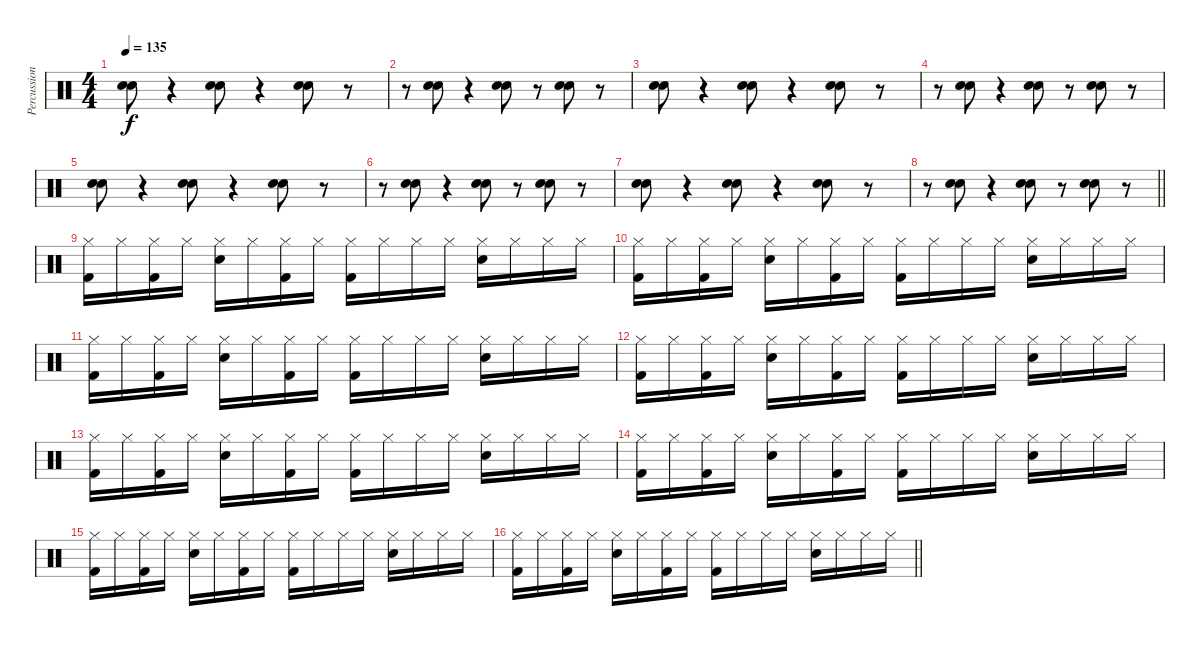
\track ("Percussion" "Percussion") {instrument percussion}
\staff {score}
\articulation defaults
\ts (4 4)
\section ("" "")
\tempo 135
\clef neutral
\ks c
("Electric Snare (hit)" "Snare (hit) 2").8{bd 480 dy f} r.4 ("Snare (hit) 2" "Electric Snare (hit)").8{bd 480} r.4 ("Snare (hit) 2" "Electric Snare (hit)").8{bd 480} r.8 |
r.8 ("Snare (hit) 2" "Electric Snare (hit)").8{bd 480} r.4 ("Snare (hit) 2" "Electric Snare (hit)").8{bd 60} r.8 ("Snare (hit) 2" "Electric Snare (hit)").8{bd 60} r.8 |
("Electric Snare (hit)" "Snare (hit) 2").8{bd 480} r.4 ("Snare (hit) 2" "Electric Snare (hit)").8{bd 480} r.4 ("Snare (hit) 2" "Electric Snare (hit)").8{bd 480} r.8 |
r.8 ("Snare (hit) 2" "Electric Snare (hit)").8{bd 480} r.4 ("Snare (hit) 2" "Electric Snare (hit)").8{bd 60} r.8 ("Snare (hit) 2" "Electric Snare (hit)").8{bd 60} r.8 |
("Electric Snare (hit)" "Snare (hit) 2").8{bd 480} r.4 ("Snare (hit) 2" "Electric Snare (hit)").8{bd 480} r.4 ("Snare (hit) 2" "Electric Snare (hit)").8{bd 480} r.8 |
r.8 ("Snare (hit) 2" "Electric Snare (hit)").8{bd 480} r.4 ("Snare (hit) 2" "Electric Snare (hit)").8{bd 60} r.8 ("Snare (hit) 2" "Electric Snare (hit)").8{bd 60} r.8 |
("Electric Snare (hit)" "Snare (hit) 2").8{bd 480} r.4 ("Snare (hit) 2" "Electric Snare (hit)").8{bd 480} r.4 ("Snare (hit) 2" "Electric Snare (hit)").8{bd 480} r.8 |
\barLineRight lightlight
r.8 ("Snare (hit) 2" "Electric Snare (hit)").8{bd 480} r.4 ("Snare (hit) 2" "Electric Snare (hit)").8{bd 60} r.8 ("Snare (hit) 2" "Electric Snare (hit)").8{bd 60} r.8 |
\section ("" "")
("Hi-Hat (closed)" "Kick (hit) 2").16 "Hi-Hat (closed)".16 ("Hi-Hat (closed)" "Kick (hit) 2").16 "Hi-Hat (closed)".16 ("Hi-Hat (closed)" "Snare (hit) 2").16 "Hi-Hat (closed)".16 ("Hi-Hat (closed)" "Kick (hit) 2").16 "Hi-Hat (closed)".16 ("Hi-Hat (closed)" "Kick (hit) 2").16 "Hi-Hat (closed)".16 "Hi-Hat (closed)".16 "Hi-Hat (closed)".16 ("Hi-Hat (closed)" "Snare (hit) 2").16 "Hi-Hat (closed)".16 "Hi-Hat (closed)".16 "Hi-Hat (closed)".16 |
("Hi-Hat (closed)" "Kick (hit) 2").16 "Hi-Hat (closed)".16 ("Hi-Hat (closed)" "Kick (hit) 2").16 "Hi-Hat (closed)".16 ("Hi-Hat (closed)" "Snare (hit) 2").16 "Hi-Hat (closed)".16 ("Hi-Hat (closed)" "Kick (hit) 2").16 "Hi-Hat (closed)".16 ("Hi-Hat (closed)" "Kick (hit) 2").16 "Hi-Hat (closed)".16 "Hi-Hat (closed)".16 "Hi-Hat (closed)".16 ("Hi-Hat (closed)" "Snare (hit) 2").16 "Hi-Hat (closed)".16 "Hi-Hat (closed)".16 "Hi-Hat (closed)".16 |
("Hi-Hat (closed)" "Kick (hit) 2").16 "Hi-Hat (closed)".16 ("Hi-Hat (closed)" "Kick (hit) 2").16 "Hi-Hat (closed)".16 ("Hi-Hat (closed)" "Snare (hit) 2").16 "Hi-Hat (closed)".16 ("Hi-Hat (closed)" "Kick (hit) 2").16 "Hi-Hat (closed)".16 ("Hi-Hat (closed)" "Kick (hit) 2").16 "Hi-Hat (closed)".16 "Hi-Hat (closed)".16 "Hi-Hat (closed)".16 ("Hi-Hat (closed)" "Snare (hit) 2").16 "Hi-Hat (closed)".16 "Hi-Hat (closed)".16 "Hi-Hat (closed)".16 |
("Hi-Hat (closed)" "Kick (hit) 2").16 "Hi-Hat (closed)".16 ("Hi-Hat (closed)" "Kick (hit) 2").16 "Hi-Hat (closed)".16 ("Hi-Hat (closed)" "Snare (hit) 2").16 "Hi-Hat (closed)".16 ("Hi-Hat (closed)" "Kick (hit) 2").16 "Hi-Hat (closed)".16 ("Hi-Hat (closed)" "Kick (hit) 2").16 "Hi-Hat (closed)".16 "Hi-Hat (closed)".16 "Hi-Hat (closed)".16 ("Hi-Hat (closed)" "Snare (hit) 2").16 "Hi-Hat (closed)".16 "Hi-Hat (closed)".16 "Hi-Hat (closed)".16 |
("Hi-Hat (closed)" "Kick (hit) 2").16 "Hi-Hat (closed)".16 ("Hi-Hat (closed)" "Kick (hit) 2").16 "Hi-Hat (closed)".16 ("Hi-Hat (closed)" "Snare (hit) 2").16 "Hi-Hat (closed)".16 ("Hi-Hat (closed)" "Kick (hit) 2").16 "Hi-Hat (closed)".16 ("Hi-Hat (closed)" "Kick (hit) 2").16 "Hi-Hat (closed)".16 "Hi-Hat (closed)".16 "Hi-Hat (closed)".16 ("Hi-Hat (closed)" "Snare (hit) 2").16 "Hi-Hat (closed)".16 "Hi-Hat (closed)".16 "Hi-Hat (closed)".16 |
("Hi-Hat (closed)" "Kick (hit) 2").16 "Hi-Hat (closed)".16 ("Hi-Hat (closed)" "Kick (hit) 2").16 "Hi-Hat (closed)".16 ("Hi-Hat (closed)" "Snare (hit) 2").16 "Hi-Hat (closed)".16 ("Hi-Hat (closed)" "Kick (hit) 2").16 "Hi-Hat (closed)".16 ("Hi-Hat (closed)" "Kick (hit) 2").16 "Hi-Hat (closed)".16 "Hi-Hat (closed)".16 "Hi-Hat (closed)".16 ("Hi-Hat (closed)" "Snare (hit) 2").16 "Hi-Hat (closed)".16 "Hi-Hat (closed)".16 "Hi-Hat (closed)".16 |
("Hi-Hat (closed)" "Kick (hit) 2").16 "Hi-Hat (closed)".16 ("Hi-Hat (closed)" "Kick (hit) 2").16 "Hi-Hat (closed)".16 ("Hi-Hat (closed)" "Snare (hit) 2").16 "Hi-Hat (closed)".16 ("Hi-Hat (closed)" "Kick (hit) 2").16 "Hi-Hat (closed)".16 ("Hi-Hat (closed)" "Kick (hit) 2").16 "Hi-Hat (closed)".16 "Hi-Hat (closed)".16 "Hi-Hat (closed)".16 ("Hi-Hat (closed)" "Snare (hit) 2").16 "Hi-Hat (closed)".16 "Hi-Hat (closed)".16 "Hi-Hat (closed)".16 |
\barLineRight lightlight
("Hi-Hat (closed)" "Kick (hit) 2").16 "Hi-Hat (closed)".16 ("Hi-Hat (closed)" "Kick (hit) 2").16 "Hi-Hat (closed)".16 ("Hi-Hat (closed)" "Snare (hit) 2").16 "Hi-Hat (closed)".16 ("Hi-Hat (closed)" "Kick (hit) 2").16 "Hi-Hat (closed)".16 ("Hi-Hat (closed)" "Kick (hit) 2").16 "Hi-Hat (closed)".16 "Hi-Hat (closed)".16 "Hi-Hat (closed)".16 ("Hi-Hat (closed)" "Snare (hit) 2").16 "Hi-Hat (closed)".16 "Hi-Hat (closed)".16 "Hi-Hat (closed)".16
